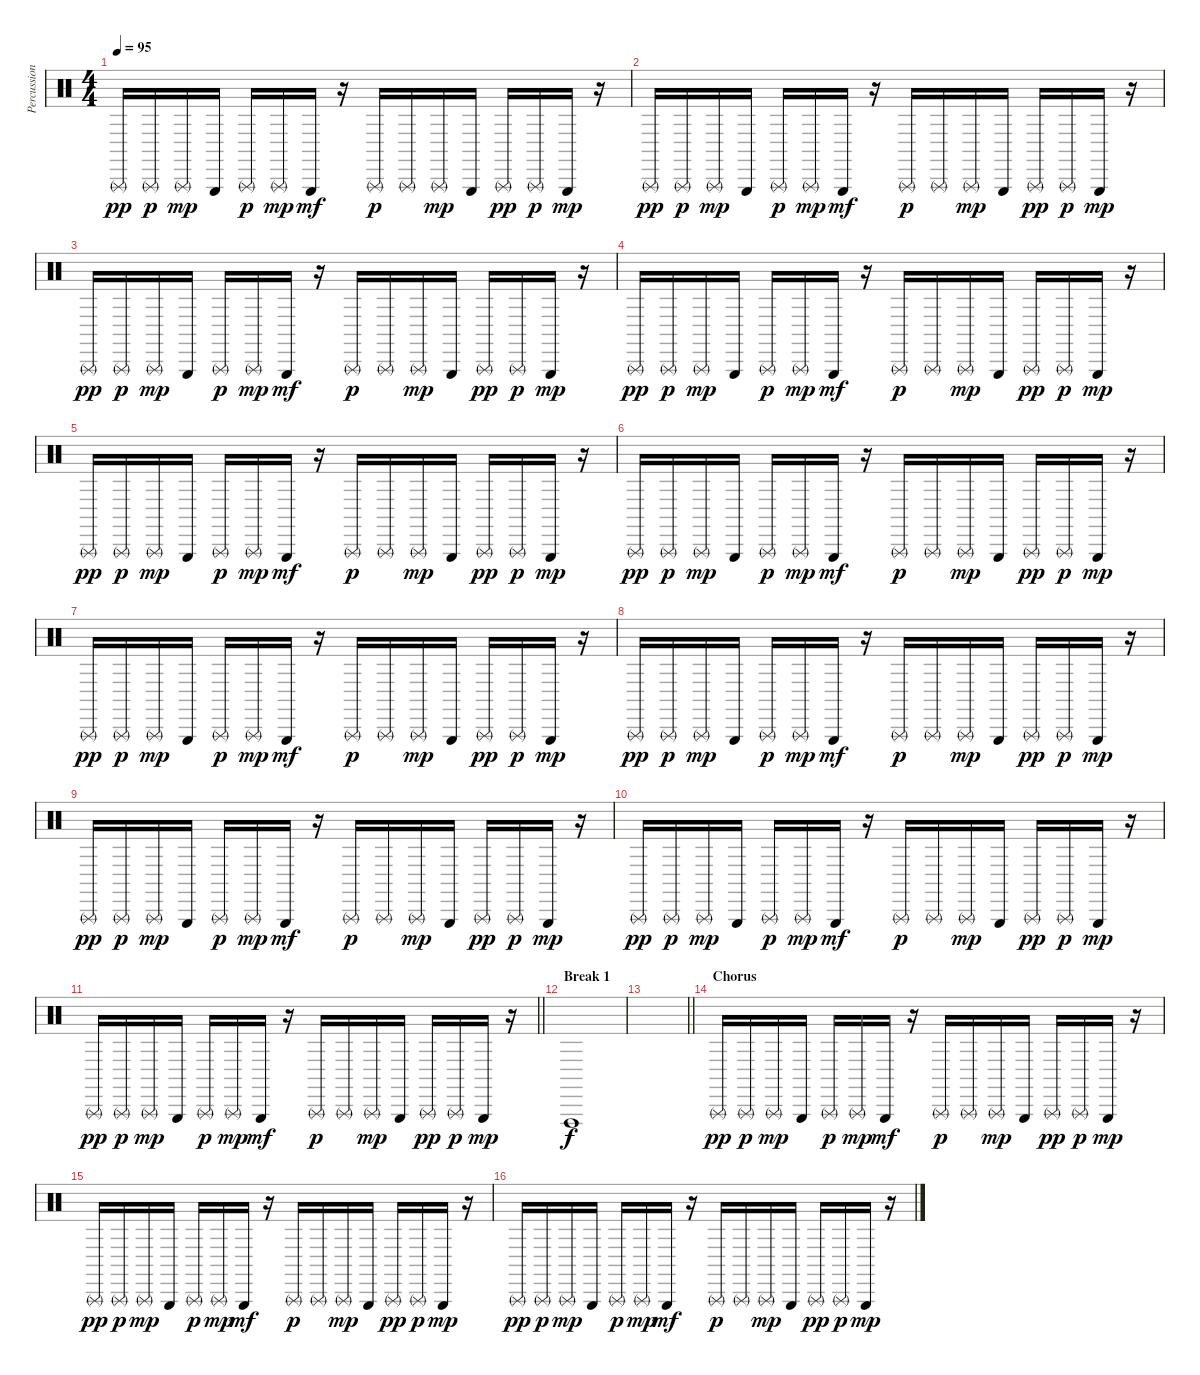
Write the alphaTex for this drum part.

\track ("Percussions" "Percussion") {instrument percussion}
\staff {score}
\articulation defaults
\ts (4 4)
\tempo 95
\clef neutral
\ks c "Triangle (rnute)".16{dy pp} "Triangle (rnute)".16{dy p} "Triangle (rnute)".16{dy mp} "Triangle (hit)".16 "Triangle (rnute)".16{dy p} "Triangle (rnute)".16{dy mp} "Triangle (hit)".16{dy mf}
r.16 "Triangle (rnute)".16{dy p} "Triangle (rnute)".16 "Triangle (rnute)".16{dy mp} "Triangle (hit)".16 "Triangle (rnute)".16{dy pp} "Triangle (rnute)".16{dy p} "Triangle (hit)".16{dy mp} r.16 |
"Triangle (rnute)".16{dy pp} "Triangle (rnute)".16{dy p} "Triangle (rnute)".16{dy mp} "Triangle (hit)".16 "Triangle (rnute)".16{dy p} "Triangle (rnute)".16{dy mp} "Triangle (hit)".16{dy mf} r.16 "Triangle (rnute)".16{dy p} "Triangle (rnute)".16 "Triangle (rnute)".16{dy mp} "Triangle (hit)".16 "Triangle (rnute)".16{dy pp} "Triangle (rnute)".16{dy p} "Triangle (hit)".16{dy mp} r.16 |
"Triangle (rnute)".16{dy pp} "Triangle (rnute)".16{dy p} "Triangle (rnute)".16{dy mp} "Triangle (hit)".16 "Triangle (rnute)".16{dy p} "Triangle (rnute)".16{dy mp} "Triangle (hit)".16{dy mf} r.16 "Triangle (rnute)".16{dy p} "Triangle (rnute)".16 "Triangle (rnute)".16{dy mp} "Triangle (hit)".16 "Triangle (rnute)".16{dy pp} "Triangle (rnute)".16{dy p} "Triangle (hit)".16{dy mp} r.16 |
"Triangle (rnute)".16{dy pp} "Triangle (rnute)".16{dy p} "Triangle (rnute)".16{dy mp} "Triangle (hit)".16 "Triangle (rnute)".16{dy p} "Triangle (rnute)".16{dy mp} "Triangle (hit)".16{dy mf} r.16 "Triangle (rnute)".16{dy p} "Triangle (rnute)".16 "Triangle (rnute)".16{dy mp} "Triangle (hit)".16 "Triangle (rnute)".16{dy pp} "Triangle (rnute)".16{dy p} "Triangle (hit)".16{dy mp} r.16 |
"Triangle (rnute)".16{dy pp} "Triangle (rnute)".16{dy p} "Triangle (rnute)".16{dy mp} "Triangle (hit)".16 "Triangle (rnute)".16{dy p} "Triangle (rnute)".16{dy mp} "Triangle (hit)".16{dy mf} r.16 "Triangle (rnute)".16{dy p} "Triangle (rnute)".16 "Triangle (rnute)".16{dy mp} "Triangle (hit)".16 "Triangle (rnute)".16{dy pp} "Triangle (rnute)".16{dy p} "Triangle (hit)".16{dy mp} r.16 |
"Triangle (rnute)".16{dy pp} "Triangle (rnute)".16{dy p} "Triangle (rnute)".16{dy mp} "Triangle (hit)".16 "Triangle (rnute)".16{dy p} "Triangle (rnute)".16{dy mp} "Triangle (hit)".16{dy mf} r.16 "Triangle (rnute)".16{dy p} "Triangle (rnute)".16 "Triangle (rnute)".16{dy mp} "Triangle (hit)".16 "Triangle (rnute)".16{dy pp} "Triangle (rnute)".16{dy p} "Triangle (hit)".16{dy mp} r.16 |
"Triangle (rnute)".16{dy pp} "Triangle (rnute)".16{dy p} "Triangle (rnute)".16{dy mp} "Triangle (hit)".16 "Triangle (rnute)".16{dy p} "Triangle (rnute)".16{dy mp} "Triangle (hit)".16{dy mf} r.16 "Triangle (rnute)".16{dy p} "Triangle (rnute)".16 "Triangle (rnute)".16{dy mp} "Triangle (hit)".16 "Triangle (rnute)".16{dy pp} "Triangle (rnute)".16{dy p} "Triangle (hit)".16{dy mp} r.16 |
"Triangle (rnute)".16{dy pp} "Triangle (rnute)".16{dy p} "Triangle (rnute)".16{dy mp} "Triangle (hit)".16 "Triangle (rnute)".16{dy p} "Triangle (rnute)".16{dy mp} "Triangle (hit)".16{dy mf} r.16 "Triangle (rnute)".16{dy p} "Triangle (rnute)".16 "Triangle (rnute)".16{dy mp} "Triangle (hit)".16 "Triangle (rnute)".16{dy pp} "Triangle (rnute)".16{dy p} "Triangle (hit)".16{dy mp} r.16 |
"Triangle (rnute)".16{dy pp} "Triangle (rnute)".16{dy p} "Triangle (rnute)".16{dy mp} "Triangle (hit)".16 "Triangle (rnute)".16{dy p} "Triangle (rnute)".16{dy mp} "Triangle (hit)".16{dy mf} r.16 "Triangle (rnute)".16{dy p} "Triangle (rnute)".16 "Triangle (rnute)".16{dy mp} "Triangle (hit)".16 "Triangle (rnute)".16{dy pp} "Triangle (rnute)".16{dy p} "Triangle (hit)".16{dy mp} r.16 |
"Triangle (rnute)".16{dy pp} "Triangle (rnute)".16{dy p} "Triangle (rnute)".16{dy mp} "Triangle (hit)".16 "Triangle (rnute)".16{dy p} "Triangle (rnute)".16{dy mp} "Triangle (hit)".16{dy mf} r.16 "Triangle (rnute)".16{dy p} "Triangle (rnute)".16 "Triangle (rnute)".16{dy mp} "Triangle (hit)".16 "Triangle (rnute)".16{dy pp} "Triangle (rnute)".16{dy p} "Triangle (hit)".16{dy mp} r.16 |
\barLineRight lightlight "Triangle (rnute)".16{dy pp} "Triangle (rnute)".16{dy p} "Triangle (rnute)".16{dy mp} "Triangle (hit)".16 "Triangle (rnute)".16{dy p} "Triangle (rnute)".16{dy mp} "Triangle (hit)".16{dy mf}
r.16 "Triangle (rnute)".16{dy p} "Triangle (rnute)".16 "Triangle (rnute)".16{dy mp} "Triangle (hit)".16 "Triangle (rnute)".16{dy pp} "Triangle (rnute)".16{dy p} "Triangle (hit)".16{dy mp} r.16 |
\section ("" "Break 1")
"Vibraslap (hit)".1{dy f} |
\barLineRight lightlight
|
\section ("" "Chorus")
"Triangle (rnute)".16{dy pp} "Triangle (rnute)".16{dy p} "Triangle (rnute)".16{dy mp} "Triangle (hit)".16 "Triangle (rnute)".16{dy p} "Triangle (rnute)".16{dy mp} "Triangle (hit)".16{dy mf} r.16 "Triangle (rnute)".16{dy p} "Triangle (rnute)".16 "Triangle (rnute)".16{dy mp} "Triangle (hit)".16 "Triangle (rnute)".16{dy pp} "Triangle (rnute)".16{dy p} "Triangle (hit)".16{dy mp} r.16 |
"Triangle (rnute)".16{dy pp} "Triangle (rnute)".16{dy p} "Triangle (rnute)".16{dy mp} "Triangle (hit)".16 "Triangle (rnute)".16{dy p} "Triangle (rnute)".16{dy mp} "Triangle (hit)".16{dy mf} r.16 "Triangle (rnute)".16{dy p} "Triangle (rnute)".16 "Triangle (rnute)".16{dy mp} "Triangle (hit)".16 "Triangle (rnute)".16{dy pp} "Triangle (rnute)".16{dy p} "Triangle (hit)".16{dy mp} r.16 |
"Triangle (rnute)".16{dy pp} "Triangle (rnute)".16{dy p} "Triangle (rnute)".16{dy mp} "Triangle (hit)".16 "Triangle (rnute)".16{dy p} "Triangle (rnute)".16{dy mp} "Triangle (hit)".16{dy mf} r.16 "Triangle (rnute)".16{dy p} "Triangle (rnute)".16 "Triangle (rnute)".16{dy mp} "Triangle (hit)".16 "Triangle (rnute)".16{dy pp} "Triangle (rnute)".16{dy p} "Triangle (hit)".16{dy mp} r.16
